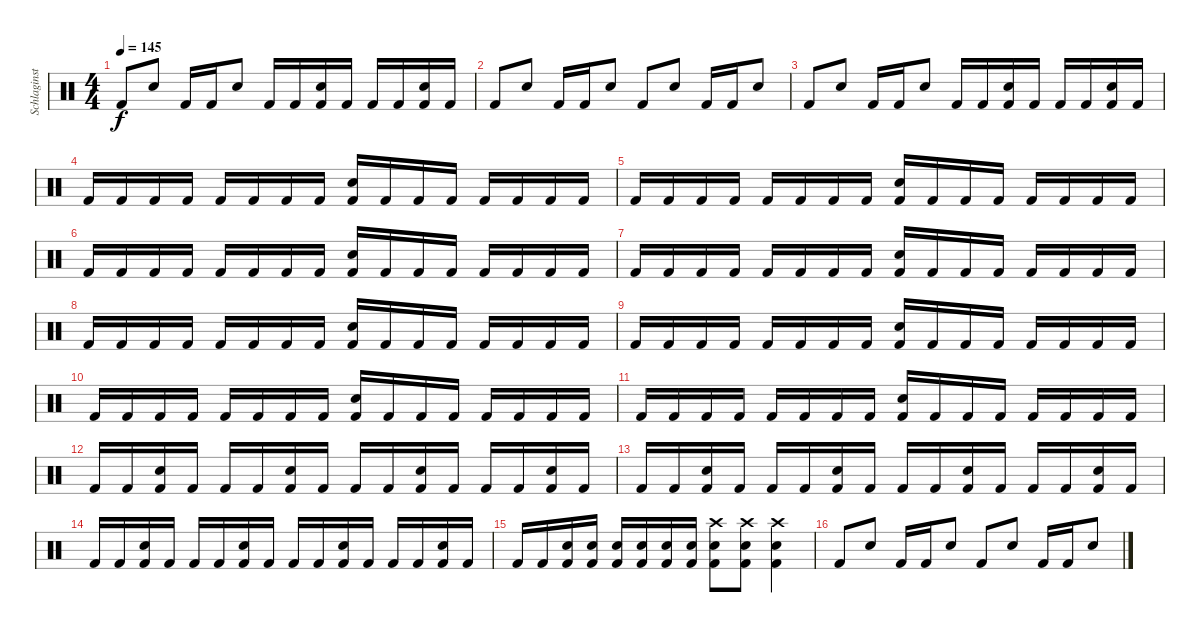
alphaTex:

\track ("Schlaginstrumente - Auswahl" "Schlaginst") {instrument percussion}
\staff {score}
\articulation defaults
\ts (4 4)
\tempo 145
\clef neutral
\ks c "Kick (hit) 2".8{dy f} "Snare (hit) 2".8 "Kick (hit) 2".16 "Kick (hit) 2".16 "Snare (hit) 2".8 "Kick (hit) 2".16 "Kick (hit) 2".16
("Snare (hit) 2" "Kick (hit) 2").16 "Kick (hit) 2".16 "Kick (hit) 2".16 "Kick (hit) 2".16 ("Snare (hit) 2" "Kick (hit) 2").16 "Kick (hit) 2".16 |
"Kick (hit) 2".8 "Snare (hit) 2".8 "Kick (hit) 2".16 "Kick (hit) 2".16 "Snare (hit) 2".8 "Kick (hit) 2".8 "Snare (hit) 2".8 "Kick (hit) 2".16 "Kick (hit) 2".16 "Snare (hit) 2".8 |
"Kick (hit) 2".8 "Snare (hit) 2".8 "Kick (hit) 2".16 "Kick (hit) 2".16 "Snare (hit) 2".8 "Kick (hit) 2".16 "Kick (hit) 2".16 ("Snare (hit) 2" "Kick (hit) 2").16 "Kick (hit) 2".16 "Kick (hit) 2".16 "Kick (hit) 2".16 ("Snare (hit) 2" "Kick (hit) 2").16 "Kick (hit) 2".16 |
"Kick (hit) 2".16 "Kick (hit) 2".16 "Kick (hit) 2".16 "Kick (hit) 2".16 "Kick (hit) 2".16 "Kick (hit) 2".16 "Kick (hit) 2".16 "Kick (hit) 2".16 ("Snare (hit) 2" "Kick (hit) 2").16 "Kick (hit) 2".16 "Kick (hit) 2".16 "Kick (hit) 2".16 "Kick (hit) 2".16 "Kick (hit) 2".16 "Kick (hit) 2".16 "Kick (hit) 2".16 |
"Kick (hit) 2".16 "Kick (hit) 2".16 "Kick (hit) 2".16 "Kick (hit) 2".16 "Kick (hit) 2".16 "Kick (hit) 2".16 "Kick (hit) 2".16 "Kick (hit) 2".16 ("Snare (hit) 2" "Kick (hit) 2").16 "Kick (hit) 2".16 "Kick (hit) 2".16 "Kick (hit) 2".16 "Kick (hit) 2".16 "Kick (hit) 2".16 "Kick (hit) 2".16 "Kick (hit) 2".16 |
"Kick (hit) 2".16 "Kick (hit) 2".16 "Kick (hit) 2".16 "Kick (hit) 2".16 "Kick (hit) 2".16 "Kick (hit) 2".16 "Kick (hit) 2".16 "Kick (hit) 2".16 ("Snare (hit) 2" "Kick (hit) 2").16 "Kick (hit) 2".16 "Kick (hit) 2".16 "Kick (hit) 2".16 "Kick (hit) 2".16 "Kick (hit) 2".16 "Kick (hit) 2".16 "Kick (hit) 2".16 |
"Kick (hit) 2".16 "Kick (hit) 2".16 "Kick (hit) 2".16 "Kick (hit) 2".16 "Kick (hit) 2".16 "Kick (hit) 2".16 "Kick (hit) 2".16 "Kick (hit) 2".16 ("Snare (hit) 2" "Kick (hit) 2").16 "Kick (hit) 2".16 "Kick (hit) 2".16 "Kick (hit) 2".16 "Kick (hit) 2".16 "Kick (hit) 2".16 "Kick (hit) 2".16 "Kick (hit) 2".16 |
"Kick (hit) 2".16 "Kick (hit) 2".16 "Kick (hit) 2".16 "Kick (hit) 2".16 "Kick (hit) 2".16 "Kick (hit) 2".16 "Kick (hit) 2".16 "Kick (hit) 2".16 ("Snare (hit) 2" "Kick (hit) 2").16 "Kick (hit) 2".16 "Kick (hit) 2".16 "Kick (hit) 2".16 "Kick (hit) 2".16 "Kick (hit) 2".16 "Kick (hit) 2".16 "Kick (hit) 2".16 |
"Kick (hit) 2".16 "Kick (hit) 2".16 "Kick (hit) 2".16 "Kick (hit) 2".16 "Kick (hit) 2".16 "Kick (hit) 2".16 "Kick (hit) 2".16 "Kick (hit) 2".16 ("Snare (hit) 2" "Kick (hit) 2").16 "Kick (hit) 2".16 "Kick (hit) 2".16 "Kick (hit) 2".16 "Kick (hit) 2".16 "Kick (hit) 2".16 "Kick (hit) 2".16 "Kick (hit) 2".16 |
"Kick (hit) 2".16 "Kick (hit) 2".16 "Kick (hit) 2".16 "Kick (hit) 2".16 "Kick (hit) 2".16 "Kick (hit) 2".16 "Kick (hit) 2".16 "Kick (hit) 2".16 ("Snare (hit) 2" "Kick (hit) 2").16 "Kick (hit) 2".16 "Kick (hit) 2".16 "Kick (hit) 2".16 "Kick (hit) 2".16 "Kick (hit) 2".16 "Kick (hit) 2".16 "Kick (hit) 2".16 |
"Kick (hit) 2".16 "Kick (hit) 2".16 "Kick (hit) 2".16 "Kick (hit) 2".16 "Kick (hit) 2".16 "Kick (hit) 2".16 "Kick (hit) 2".16 "Kick (hit) 2".16 ("Snare (hit) 2" "Kick (hit) 2").16 "Kick (hit) 2".16 "Kick (hit) 2".16 "Kick (hit) 2".16 "Kick (hit) 2".16 "Kick (hit) 2".16 "Kick (hit) 2".16 "Kick (hit) 2".16 |
"Kick (hit) 2".16 "Kick (hit) 2".16 ("Snare (hit) 2" "Kick (hit) 2").16 "Kick (hit) 2".16 "Kick (hit) 2".16 "Kick (hit) 2".16 ("Snare (hit) 2" "Kick (hit) 2").16 "Kick (hit) 2".16 "Kick (hit) 2".16 "Kick (hit) 2".16 ("Snare (hit) 2" "Kick (hit) 2").16 "Kick (hit) 2".16 "Kick (hit) 2".16 "Kick (hit) 2".16 ("Snare (hit) 2" "Kick (hit) 2").16 "Kick (hit) 2".16 |
"Kick (hit) 2".16 "Kick (hit) 2".16 ("Snare (hit) 2" "Kick (hit) 2").16 "Kick (hit) 2".16 "Kick (hit) 2".16 "Kick (hit) 2".16 ("Snare (hit) 2" "Kick (hit) 2").16 "Kick (hit) 2".16 "Kick (hit) 2".16 "Kick (hit) 2".16 ("Snare (hit) 2" "Kick (hit) 2").16 "Kick (hit) 2".16 "Kick (hit) 2".16 "Kick (hit) 2".16 ("Snare (hit) 2" "Kick (hit) 2").16 "Kick (hit) 2".16 |
"Kick (hit) 2".16 "Kick (hit) 2".16 ("Snare (hit) 2" "Kick (hit) 2").16 "Kick (hit) 2".16 "Kick (hit) 2".16 "Kick (hit) 2".16 ("Snare (hit) 2" "Kick (hit) 2").16 "Kick (hit) 2".16 "Kick (hit) 2".16 "Kick (hit) 2".16 ("Snare (hit) 2" "Kick (hit) 2").16 "Kick (hit) 2".16 "Kick (hit) 2".16 "Kick (hit) 2".16 ("Snare (hit) 2" "Kick (hit) 2").16 "Kick (hit) 2".16 |
"Kick (hit) 2".16 "Kick (hit) 2".16 ("Snare (hit) 2" "Kick (hit) 2").16 ("Snare (hit) 2" "Kick (hit) 2").16 ("Snare (hit) 2" "Kick (hit) 2").16 ("Snare (hit) 2" "Kick (hit) 2").16 ("Snare (hit) 2" "Kick (hit) 2").16 ("Snare (hit) 2" "Kick (hit) 2").16 ("Crash high (hit)" "Snare (hit) 2" "Kick (hit) 2").8 ("Crash high (hit)" "Snare (hit) 2" "Kick (hit) 2").8 ("Crash high (hit)" "Snare (hit) 2" "Kick (hit) 2").4 |
"Kick (hit) 2".8 "Snare (hit) 2".8 "Kick (hit) 2".16 "Kick (hit) 2".16 "Snare (hit) 2".8 "Kick (hit) 2".8 "Snare (hit) 2".8 "Kick (hit) 2".16 "Kick (hit) 2".16 "Snare (hit) 2".8
